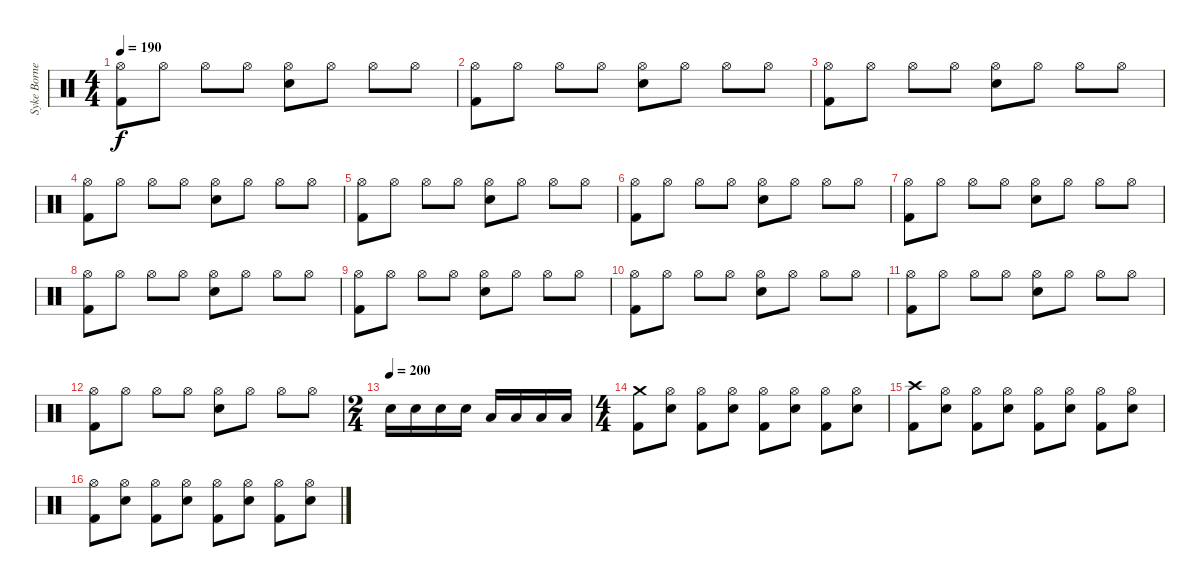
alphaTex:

\track ("Syke Bornetto (Drums)" "Syke Borne") {instrument percussion}
\staff {score}
\articulation defaults
\ts (4 4)
\tempo 190
\clef neutral
\ks c
("Hi-Hat (open)" "Kick (hit) 2").8{dy f} "Hi-Hat (open)".8 "Hi-Hat (open)".8 "Hi-Hat (open)".8 ("Hi-Hat (open)" "Electric Snare (hit)").8 "Hi-Hat (open)".8 "Hi-Hat (open)".8 "Hi-Hat (open)".8 |
("Hi-Hat (open)" "Kick (hit) 2").8 "Hi-Hat (open)".8 "Hi-Hat (open)".8 "Hi-Hat (open)".8 ("Hi-Hat (open)" "Electric Snare (hit)").8 "Hi-Hat (open)".8 "Hi-Hat (open)".8 "Hi-Hat (open)".8 |
("Hi-Hat (open)" "Kick (hit) 2").8 "Hi-Hat (open)".8 "Hi-Hat (open)".8 "Hi-Hat (open)".8 ("Hi-Hat (open)" "Electric Snare (hit)").8 "Hi-Hat (open)".8 "Hi-Hat (open)".8 "Hi-Hat (open)".8 |
("Hi-Hat (open)" "Kick (hit) 2").8 "Hi-Hat (open)".8 "Hi-Hat (open)".8 "Hi-Hat (open)".8 ("Hi-Hat (open)" "Electric Snare (hit)").8 "Hi-Hat (open)".8 "Hi-Hat (open)".8 "Hi-Hat (open)".8 |
("Hi-Hat (open)" "Kick (hit) 2").8 "Hi-Hat (open)".8 "Hi-Hat (open)".8 "Hi-Hat (open)".8 ("Hi-Hat (open)" "Electric Snare (hit)").8 "Hi-Hat (open)".8 "Hi-Hat (open)".8 "Hi-Hat (open)".8 |
("Hi-Hat (open)" "Kick (hit) 2").8 "Hi-Hat (open)".8 "Hi-Hat (open)".8 "Hi-Hat (open)".8 ("Hi-Hat (open)" "Electric Snare (hit)").8 "Hi-Hat (open)".8 "Hi-Hat (open)".8 "Hi-Hat (open)".8 |
("Hi-Hat (open)" "Kick (hit) 2").8 "Hi-Hat (open)".8 "Hi-Hat (open)".8 "Hi-Hat (open)".8 ("Hi-Hat (open)" "Electric Snare (hit)").8 "Hi-Hat (open)".8 "Hi-Hat (open)".8 "Hi-Hat (open)".8 |
("Hi-Hat (open)" "Kick (hit) 2").8 "Hi-Hat (open)".8 "Hi-Hat (open)".8 "Hi-Hat (open)".8 ("Hi-Hat (open)" "Electric Snare (hit)").8 "Hi-Hat (open)".8 "Hi-Hat (open)".8 "Hi-Hat (open)".8 |
("Hi-Hat (open)" "Kick (hit) 2").8 "Hi-Hat (open)".8 "Hi-Hat (open)".8 "Hi-Hat (open)".8 ("Hi-Hat (open)" "Electric Snare (hit)").8 "Hi-Hat (open)".8 "Hi-Hat (open)".8 "Hi-Hat (open)".8 |
("Hi-Hat (open)" "Kick (hit) 2").8 "Hi-Hat (open)".8 "Hi-Hat (open)".8 "Hi-Hat (open)".8 ("Hi-Hat (open)" "Electric Snare (hit)").8 "Hi-Hat (open)".8 "Hi-Hat (open)".8 "Hi-Hat (open)".8 |
("Hi-Hat (open)" "Kick (hit) 2").8 "Hi-Hat (open)".8 "Hi-Hat (open)".8 "Hi-Hat (open)".8 ("Hi-Hat (open)" "Electric Snare (hit)").8 "Hi-Hat (open)".8 "Hi-Hat (open)".8 "Hi-Hat (open)".8 |
("Hi-Hat (open)" "Kick (hit) 2").8 "Hi-Hat (open)".8 "Hi-Hat (open)".8 "Hi-Hat (open)".8 ("Hi-Hat (open)" "Electric Snare (hit)").8 "Hi-Hat (open)".8 "Hi-Hat (open)".8 "Hi-Hat (open)".8 |
\ts (2 4)
\tempo (200)
"Electric Snare (hit)".16 "Electric Snare (hit)".16 "Electric Snare (hit)".16 "Electric Snare (hit)".16 "Low Floor Tom (hit)".16 "Low Floor Tom (hit)".16 "Low Floor Tom (hit)".16 "Low Floor Tom (hit)".16 |
\ts (4 4)
("Crash medium (hit)" "Kick (hit) 2").8 ("Hi-Hat (open)" "Electric Snare (hit)").8 ("Hi-Hat (open)" "Kick (hit) 2").8 ("Hi-Hat (open)" "Electric Snare (hit)").8 ("Hi-Hat (open)" "Kick (hit) 2").8 ("Hi-Hat (open)" "Electric Snare (hit)").8 ("Hi-Hat (open)" "Kick (hit) 2").8 ("Hi-Hat (open)" "Electric Snare (hit)").8 |
("Crash high (hit)" "Kick (hit) 2").8 ("Hi-Hat (open)" "Electric Snare (hit)").8 ("Hi-Hat (open)" "Kick (hit) 2").8 ("Hi-Hat (open)" "Electric Snare (hit)").8 ("Hi-Hat (open)" "Kick (hit) 2").8 ("Hi-Hat (open)" "Electric Snare (hit)").8 ("Hi-Hat (open)" "Kick (hit) 2").8 ("Hi-Hat (open)" "Electric Snare (hit)").8 |
("Hi-Hat (open)" "Kick (hit) 2").8 ("Hi-Hat (open)" "Electric Snare (hit)").8 ("Hi-Hat (open)" "Kick (hit) 2").8 ("Hi-Hat (open)" "Electric Snare (hit)").8 ("Hi-Hat (open)" "Kick (hit) 2").8 ("Hi-Hat (open)" "Electric Snare (hit)").8 ("Hi-Hat (open)" "Kick (hit) 2").8 ("Hi-Hat (open)" "Electric Snare (hit)").8
